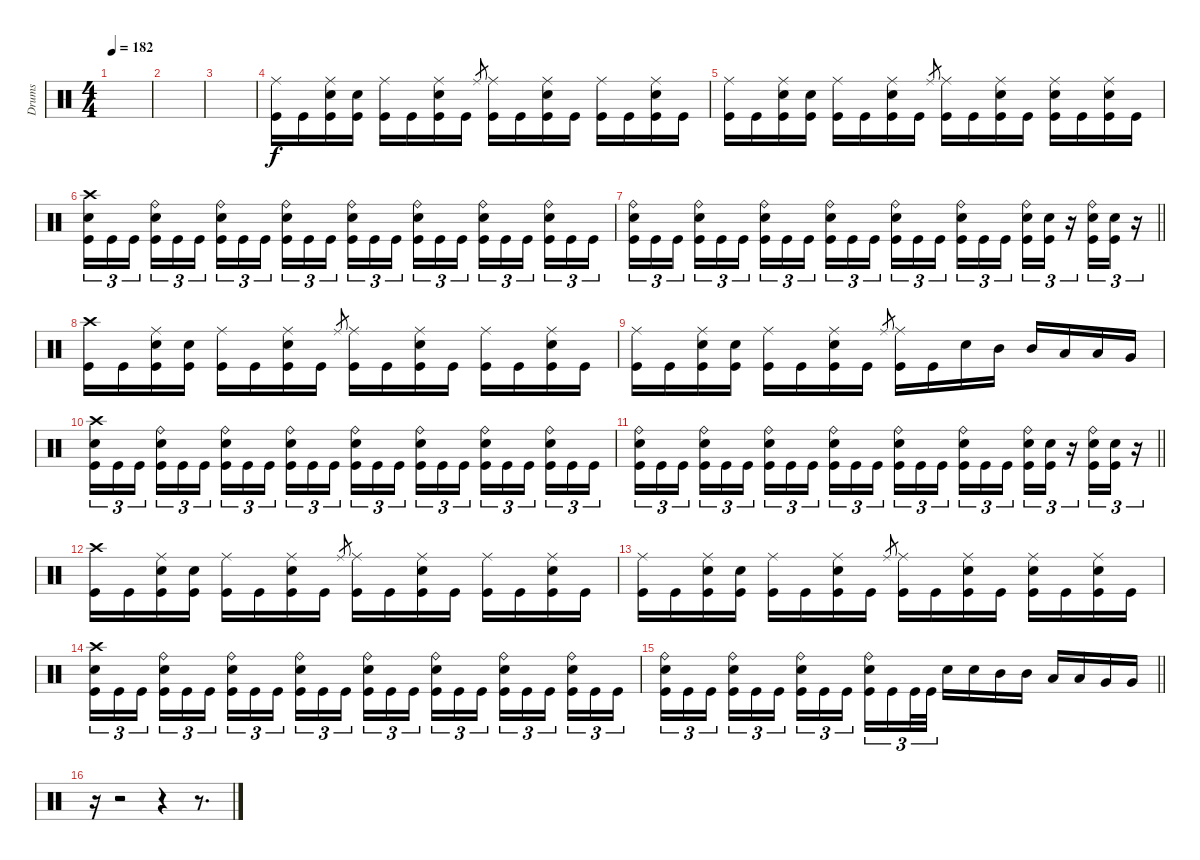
\track ("Drums" "Drums") {instrument percussion}
\staff
\articulation defaults
\ts (4 4)
\tempo 182
\clef neutral
\ks c
|
|
|
("Ride (middle)" "Kick (hit)").16 "Kick (hit)".16 ("Ride (middle)" "Electric Snare (hit)" "Kick (hit)").16 ("Electric Snare (hit)" "Kick (hit)").16 ("Ride (middle)" "Kick (hit)").16 "Kick (hit)".16 ("Ride (middle)" "Electric Snare (hit)" "Kick (hit)").16 "Kick (hit)".16 "Ride (middle)".8{gr} ("Ride (middle)" "Kick (hit)").16 "Kick (hit)".16 ("Ride (middle)" "Electric Snare (hit)" "Kick (hit)").16 "Kick (hit)".16 ("Ride (middle)" "Kick (hit)").16 "Kick (hit)".16 ("Ride (middle)" "Electric Snare (hit)" "Kick (hit)").16 "Kick (hit)".16 |
("Ride (middle)" "Kick (hit)").16 "Kick (hit)".16 ("Ride (middle)" "Electric Snare (hit)" "Kick (hit)").16 ("Electric Snare (hit)" "Kick (hit)").16 ("Ride (middle)" "Kick (hit)").16 "Kick (hit)".16 ("Ride (middle)" "Electric Snare (hit)" "Kick (hit)").16 "Kick (hit)".16 "Ride (middle)".8{gr} ("Ride (middle)" "Kick (hit)").16 "Kick (hit)".16 ("Ride (middle)" "Electric Snare (hit)" "Kick (hit)").16 "Kick (hit)".16 ("Ride (middle)" "Electric Snare (hit)" "Kick (hit)").16 "Kick (hit)".16 ("Ride (middle)" "Electric Snare (hit)" "Kick (hit)").16 "Kick (hit)".16 |
("Crash high (hit)" "Electric Snare (hit)" "Kick (hit)").16{tu (3 2)} "Kick (hit)".16{tu (3 2)} "Kick (hit)".16{tu (3 2) beam splitsecondary} ("Ride (bell)" "Electric Snare (hit)" "Kick (hit)").16{tu (3 2)} "Kick (hit)".16{tu (3 2)} "Kick (hit)".16{tu (3 2)} ("Ride (bell)" "Electric Snare (hit)" "Kick (hit)").16{tu (3 2)} "Kick (hit)".16{tu (3 2)} "Kick (hit)".16{tu (3 2) beam splitsecondary} ("Ride (bell)" "Electric Snare (hit)" "Kick (hit)").16{tu (3 2)} "Kick (hit)".16{tu (3 2)} "Kick (hit)".16{tu (3 2)} ("Ride (bell)" "Electric Snare (hit)" "Kick (hit)").16{tu (3 2)} "Kick (hit)".16{tu (3 2)} "Kick (hit)".16{tu (3 2) beam splitsecondary} ("Ride (bell)" "Electric Snare (hit)" "Kick (hit)").16{tu (3 2)} "Kick (hit)".16{tu (3 2)} "Kick (hit)".16{tu (3 2)} ("Ride (bell)" "Electric Snare (hit)" "Kick (hit)").16{tu (3 2)} "Kick (hit)".16{tu (3 2)} "Kick (hit)".16{tu (3 2) beam splitsecondary} ("Ride (bell)" "Electric Snare (hit)" "Kick (hit)").16{tu (3 2)} "Kick (hit)".16{tu (3 2)} "Kick (hit)".16{tu (3 2)} |
\barLineRight lightlight
("Ride (bell)" "Electric Snare (hit)" "Kick (hit)").16{tu (3 2)} "Kick (hit)".16{tu (3 2)} "Kick (hit)".16{tu (3 2) beam splitsecondary} ("Ride (bell)" "Electric Snare (hit)" "Kick (hit)").16{tu (3 2)} "Kick (hit)".16{tu (3 2)} "Kick (hit)".16{tu (3 2)} ("Ride (bell)" "Electric Snare (hit)" "Kick (hit)").16{tu (3 2)} "Kick (hit)".16{tu (3 2)} "Kick (hit)".16{tu (3 2) beam splitsecondary} ("Ride (bell)" "Electric Snare (hit)" "Kick (hit)").16{tu (3 2)} "Kick (hit)".16{tu (3 2)} "Kick (hit)".16{tu (3 2)} ("Ride (bell)" "Electric Snare (hit)" "Kick (hit)").16{tu (3 2)} "Kick (hit)".16{tu (3 2)} "Kick (hit)".16{tu (3 2) beam splitsecondary} ("Ride (bell)" "Electric Snare (hit)" "Kick (hit)").16{tu (3 2)} "Kick (hit)".16{tu (3 2)} "Kick (hit)".16{tu (3 2)} ("Ride (bell)" "Electric Snare (hit)" "Kick (hit)").16{tu (3 2)} ("Electric Snare (hit)" "Kick (hit)").16{tu (3 2)} r.16{tu (3 2)} ("Ride (bell)" "Electric Snare (hit)" "Kick (hit)").16{tu (3 2)} ("Electric Snare (hit)" "Kick (hit)").16{tu (3 2)} r.16{tu (3 2)} |
("Crash high (hit)" "Kick (hit)").16 "Kick (hit)".16 ("Ride (middle)" "Electric Snare (hit)" "Kick (hit)").16 ("Electric Snare (hit)" "Kick (hit)").16 ("Ride (middle)" "Kick (hit)").16 "Kick (hit)".16 ("Ride (middle)" "Electric Snare (hit)" "Kick (hit)").16 "Kick (hit)".16 "Ride (middle)".8{gr} ("Ride (middle)" "Kick (hit)").16 "Kick (hit)".16 ("Ride (middle)" "Electric Snare (hit)" "Kick (hit)").16 "Kick (hit)".16 ("Ride (middle)" "Kick (hit)").16 "Kick (hit)".16 ("Ride (middle)" "Electric Snare (hit)" "Kick (hit)").16 "Kick (hit)".16 |
("Ride (middle)" "Kick (hit)").16 "Kick (hit)".16 ("Ride (middle)" "Electric Snare (hit)" "Kick (hit)").16 ("Electric Snare (hit)" "Kick (hit)").16 ("Ride (middle)" "Kick (hit)").16 "Kick (hit)".16 ("Ride (middle)" "Electric Snare (hit)" "Kick (hit)").16 "Kick (hit)".16 "Ride (middle)".8{gr} ("Ride (middle)" "Kick (hit)").16 "Kick (hit)".16 "Electric Snare (hit)".16 "Mid Tom (hit)".16 "Mid Tom (hit)".16 "Low Tom (hit)".16 "Low Tom (hit)".16 "Very Low Tom (hit)".16 |
("Crash high (hit)" "Electric Snare (hit)" "Kick (hit)").16{tu (3 2)} "Kick (hit)".16{tu (3 2)} "Kick (hit)".16{tu (3 2) beam splitsecondary} ("Ride (bell)" "Electric Snare (hit)" "Kick (hit)").16{tu (3 2)} "Kick (hit)".16{tu (3 2)} "Kick (hit)".16{tu (3 2)} ("Ride (bell)" "Electric Snare (hit)" "Kick (hit)").16{tu (3 2)} "Kick (hit)".16{tu (3 2)} "Kick (hit)".16{tu (3 2) beam splitsecondary} ("Ride (bell)" "Electric Snare (hit)" "Kick (hit)").16{tu (3 2)} "Kick (hit)".16{tu (3 2)} "Kick (hit)".16{tu (3 2)} ("Ride (bell)" "Electric Snare (hit)" "Kick (hit)").16{tu (3 2)} "Kick (hit)".16{tu (3 2)} "Kick (hit)".16{tu (3 2) beam splitsecondary} ("Ride (bell)" "Electric Snare (hit)" "Kick (hit)").16{tu (3 2)} "Kick (hit)".16{tu (3 2)} "Kick (hit)".16{tu (3 2)} ("Ride (bell)" "Electric Snare (hit)" "Kick (hit)").16{tu (3 2)} "Kick (hit)".16{tu (3 2)} "Kick (hit)".16{tu (3 2) beam splitsecondary} ("Ride (bell)" "Electric Snare (hit)" "Kick (hit)").16{tu (3 2)} "Kick (hit)".16{tu (3 2)} "Kick (hit)".16{tu (3 2)} |
\barLineRight lightlight
("Ride (bell)" "Electric Snare (hit)" "Kick (hit)").16{tu (3 2)} "Kick (hit)".16{tu (3 2)} "Kick (hit)".16{tu (3 2) beam splitsecondary} ("Ride (bell)" "Electric Snare (hit)" "Kick (hit)").16{tu (3 2)} "Kick (hit)".16{tu (3 2)} "Kick (hit)".16{tu (3 2)} ("Ride (bell)" "Electric Snare (hit)" "Kick (hit)").16{tu (3 2)} "Kick (hit)".16{tu (3 2)} "Kick (hit)".16{tu (3 2) beam splitsecondary} ("Ride (bell)" "Electric Snare (hit)" "Kick (hit)").16{tu (3 2)} "Kick (hit)".16{tu (3 2)} "Kick (hit)".16{tu (3 2)} ("Ride (bell)" "Electric Snare (hit)" "Kick (hit)").16{tu (3 2)} "Kick (hit)".16{tu (3 2)} "Kick (hit)".16{tu (3 2) beam splitsecondary} ("Ride (bell)" "Electric Snare (hit)" "Kick (hit)").16{tu (3 2)} "Kick (hit)".16{tu (3 2)} "Kick (hit)".16{tu (3 2)} ("Ride (bell)" "Electric Snare (hit)" "Kick (hit)").16{tu (3 2)} ("Electric Snare (hit)" "Kick (hit)").16{tu (3 2)} r.16{tu (3 2)} ("Ride (bell)" "Electric Snare (hit)" "Kick (hit)").16{tu (3 2)} ("Electric Snare (hit)" "Kick (hit)").16{tu (3 2)} r.16{tu (3 2)} |
("Crash high (hit)" "Kick (hit)").16 "Kick (hit)".16 ("Ride (middle)" "Electric Snare (hit)" "Kick (hit)").16 ("Electric Snare (hit)" "Kick (hit)").16 ("Ride (middle)" "Kick (hit)").16 "Kick (hit)".16 ("Ride (middle)" "Electric Snare (hit)" "Kick (hit)").16 "Kick (hit)".16 "Ride (middle)".8{gr} ("Ride (middle)" "Kick (hit)").16 "Kick (hit)".16 ("Ride (middle)" "Electric Snare (hit)" "Kick (hit)").16 "Kick (hit)".16 ("Ride (middle)" "Kick (hit)").16 "Kick (hit)".16 ("Ride (middle)" "Electric Snare (hit)" "Kick (hit)").16 "Kick (hit)".16 |
("Ride (middle)" "Kick (hit)").16 "Kick (hit)".16 ("Ride (middle)" "Electric Snare (hit)" "Kick (hit)").16 ("Electric Snare (hit)" "Kick (hit)").16 ("Ride (middle)" "Kick (hit)").16 "Kick (hit)".16 ("Ride (middle)" "Electric Snare (hit)" "Kick (hit)").16 "Kick (hit)".16 "Ride (middle)".8{gr} ("Ride (middle)" "Kick (hit)").16 "Kick (hit)".16 ("Ride (middle)" "Electric Snare (hit)" "Kick (hit)").16 "Kick (hit)".16 ("Ride (middle)" "Electric Snare (hit)" "Kick (hit)").16 "Kick (hit)".16 ("Ride (middle)" "Electric Snare (hit)" "Kick (hit)").16 "Kick (hit)".16 |
("Crash high (hit)" "Electric Snare (hit)" "Kick (hit)").16{tu (3 2)} "Kick (hit)".16{tu (3 2)} "Kick (hit)".16{tu (3 2) beam splitsecondary} ("Ride (bell)" "Electric Snare (hit)" "Kick (hit)").16{tu (3 2)} "Kick (hit)".16{tu (3 2)} "Kick (hit)".16{tu (3 2)} ("Ride (bell)" "Electric Snare (hit)" "Kick (hit)").16{tu (3 2)} "Kick (hit)".16{tu (3 2)} "Kick (hit)".16{tu (3 2) beam splitsecondary} ("Ride (bell)" "Electric Snare (hit)" "Kick (hit)").16{tu (3 2)} "Kick (hit)".16{tu (3 2)} "Kick (hit)".16{tu (3 2)} ("Ride (bell)" "Electric Snare (hit)" "Kick (hit)").16{tu (3 2)} "Kick (hit)".16{tu (3 2)} "Kick (hit)".16{tu (3 2) beam splitsecondary} ("Ride (bell)" "Electric Snare (hit)" "Kick (hit)").16{tu (3 2)} "Kick (hit)".16{tu (3 2)} "Kick (hit)".16{tu (3 2)} ("Ride (bell)" "Electric Snare (hit)" "Kick (hit)").16{tu (3 2)} "Kick (hit)".16{tu (3 2)} "Kick (hit)".16{tu (3 2) beam splitsecondary} ("Ride (bell)" "Electric Snare (hit)" "Kick (hit)").16{tu (3 2)} "Kick (hit)".16{tu (3 2)} "Kick (hit)".16{tu (3 2)} |
\barLineRight lightlight
("Ride (bell)" "Electric Snare (hit)" "Kick (hit)").16{tu (3 2)} "Kick (hit)".16{tu (3 2)} "Kick (hit)".16{tu (3 2) beam splitsecondary} ("Ride (bell)" "Electric Snare (hit)" "Kick (hit)").16{tu (3 2)} "Kick (hit)".16{tu (3 2)} "Kick (hit)".16{tu (3 2)} ("Ride (bell)" "Electric Snare (hit)" "Kick (hit)").16{tu (3 2)} "Kick (hit)".16{tu (3 2)} "Kick (hit)".16{tu (3 2) beam splitsecondary} ("Ride (bell)" "Electric Snare (hit)" "Kick (hit)").16{tu (3 2)} "Kick (hit)".16{tu (3 2)} "Kick (hit)".32{tu (3 2)} "Kick (hit)".32{tu (3 2)} "Electric Snare (hit)".16 "Electric Snare (hit)".16 "Mid Tom (hit)".16 "Mid Tom (hit)".16 "Low Tom (hit)".16 "Low Tom (hit)".16 "Very Low Tom (hit)".16 "Very Low Tom (hit)".16 |
r.16 r.2 r.4 r.8{d}
